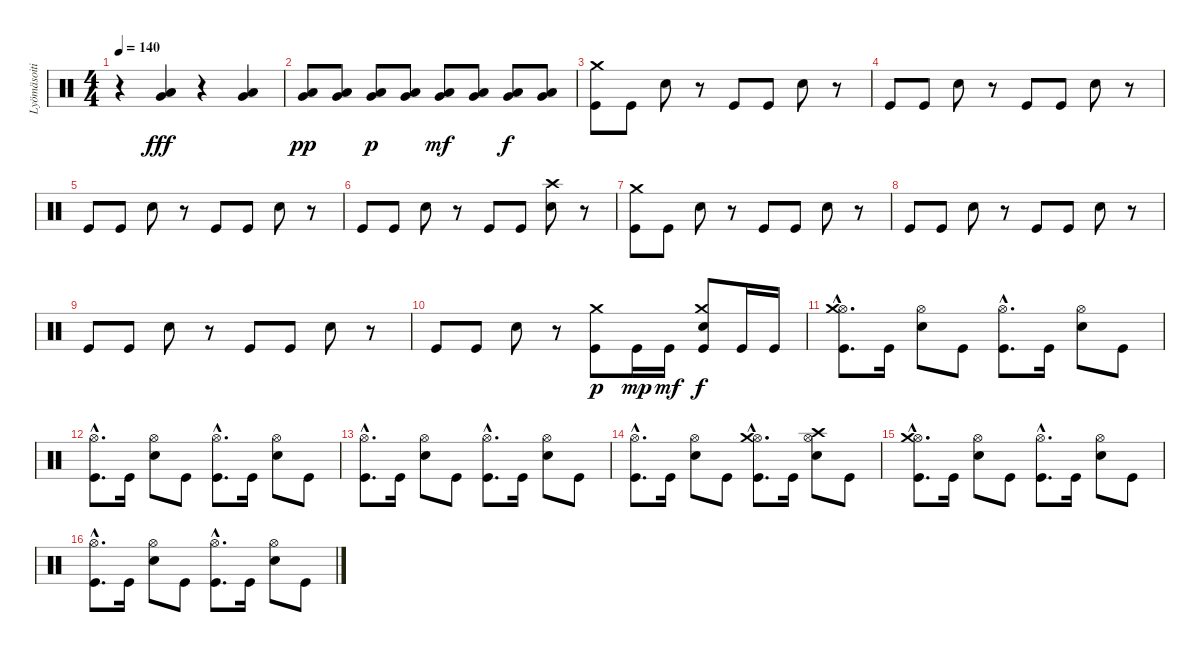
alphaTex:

\track ("Lyömäsoitin" "Lyömäsoiti") {instrument percussion}
\staff {score}
\articulation defaults
\ts (4 4)
\tempo 140
\clef neutral
\ks c
r.4{dy fff} ("Low Floor Tom (hit)" "Very Low Tom (hit)").4 r.4 ("Low Floor Tom (hit)" "Very Low Tom (hit)").4 |
("Low Floor Tom (hit)" "Very Low Tom (hit)").8{dy pp} ("Low Floor Tom (hit)" "Very Low Tom (hit)").8 ("Low Floor Tom (hit)" "Very Low Tom (hit)").8{dy p} ("Low Floor Tom (hit)" "Very Low Tom (hit)").8 ("Low Floor Tom (hit)" "Very Low Tom (hit)").8{dy mf} ("Low Floor Tom (hit)" "Very Low Tom (hit)").8 ("Low Floor Tom (hit)" "Very Low Tom (hit)").8{dy f} ("Low Floor Tom (hit)" "Very Low Tom (hit)").8 |
("Kick (hit)" "Crash medium (hit)").8 "Kick (hit)".8 "Electric Snare (hit)".8 r.8 "Kick (hit)".8 "Kick (hit)".8 "Electric Snare (hit)".8 r.8 |
"Kick (hit)".8 "Kick (hit)".8 "Electric Snare (hit)".8 r.8 "Kick (hit)".8 "Kick (hit)".8 "Electric Snare (hit)".8 r.8 |
"Kick (hit)".8 "Kick (hit)".8 "Electric Snare (hit)".8 r.8 "Kick (hit)".8 "Kick (hit)".8 "Electric Snare (hit)".8 r.8 |
"Kick (hit)".8 "Kick (hit)".8 "Electric Snare (hit)".8 r.8 "Kick (hit)".8 "Kick (hit)".8 ("Electric Snare (hit)" "Crash high (hit)").8 r.8 |
("Kick (hit)" "Crash medium (hit)").8 "Kick (hit)".8 "Electric Snare (hit)".8 r.8 "Kick (hit)".8 "Kick (hit)".8 "Electric Snare (hit)".8 r.8 |
"Kick (hit)".8 "Kick (hit)".8 "Electric Snare (hit)".8 r.8 "Kick (hit)".8 "Kick (hit)".8 "Electric Snare (hit)".8 r.8 |
"Kick (hit)".8 "Kick (hit)".8 "Electric Snare (hit)".8 r.8 "Kick (hit)".8 "Kick (hit)".8 "Electric Snare (hit)".8 r.8 |
"Kick (hit)".8 "Kick (hit)".8 "Electric Snare (hit)".8 r.8 ("Kick (hit)" "Crash medium (hit)").8{dy p} "Kick (hit)".16{dy mp} "Kick (hit)".16{dy mf} ("Kick (hit)" "Electric Snare (hit)" "Crash medium (hit)").8{dy f} "Kick (hit)".16 "Kick (hit)".16 |
("Kick (hit)"{hac} "Hi-Hat (open)"{hac} "Crash medium (hit)"{hac}).8{d} "Kick (hit)".16 ("Electric Snare (hit)" "Hi-Hat (open)").8 "Kick (hit)".8 ("Kick (hit)"{hac} "Hi-Hat (open)"{hac}).8{d} "Kick (hit)".16 ("Electric Snare (hit)" "Hi-Hat (open)").8 "Kick (hit)".8 |
("Kick (hit)"{hac} "Hi-Hat (open)"{hac}).8{d} "Kick (hit)".16 ("Electric Snare (hit)" "Hi-Hat (open)").8 "Kick (hit)".8 ("Kick (hit)"{hac} "Hi-Hat (open)"{hac}).8{d} "Kick (hit)".16 ("Electric Snare (hit)" "Hi-Hat (open)").8 "Kick (hit)".8 |
("Kick (hit)"{hac} "Hi-Hat (open)"{hac}).8{d} "Kick (hit)".16 ("Electric Snare (hit)" "Hi-Hat (open)").8 "Kick (hit)".8 ("Kick (hit)"{hac} "Hi-Hat (open)"{hac}).8{d} "Kick (hit)".16 ("Electric Snare (hit)" "Hi-Hat (open)").8 "Kick (hit)".8 |
("Kick (hit)"{hac} "Hi-Hat (open)"{hac}).8{d} "Kick (hit)".16 ("Electric Snare (hit)" "Hi-Hat (open)").8 "Kick (hit)".8 ("Kick (hit)"{hac} "Hi-Hat (open)"{hac} "Crash medium (hit)"{hac}).8{d} "Kick (hit)".16 ("Electric Snare (hit)" "Hi-Hat (open)" "Crash high (hit)").8 "Kick (hit)".8 |
("Kick (hit)"{hac} "Hi-Hat (open)"{hac} "Crash medium (hit)"{hac}).8{d} "Kick (hit)".16 ("Electric Snare (hit)" "Hi-Hat (open)").8 "Kick (hit)".8 ("Kick (hit)"{hac} "Hi-Hat (open)"{hac}).8{d} "Kick (hit)".16 ("Electric Snare (hit)" "Hi-Hat (open)").8 "Kick (hit)".8 |
("Kick (hit)"{hac} "Hi-Hat (open)"{hac}).8{d} "Kick (hit)".16 ("Electric Snare (hit)" "Hi-Hat (open)").8 "Kick (hit)".8 ("Kick (hit)"{hac} "Hi-Hat (open)"{hac}).8{d} "Kick (hit)".16 ("Electric Snare (hit)" "Hi-Hat (open)").8 "Kick (hit)".8
